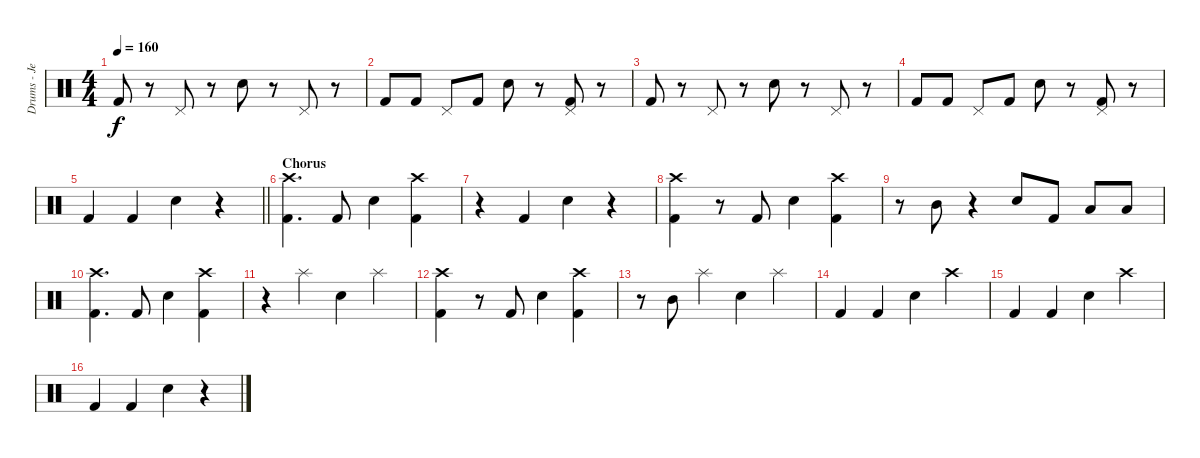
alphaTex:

\track ("Drums - Jen Ledger" "Drums - Je") {instrument percussion}
\staff {score}
\articulation defaults
\ts (4 4)
\tempo 160
\clef neutral
\ks c "Kick (hit) 2".8{dy f}
r.8 "Pedal Hi-Hat (hit)".8 r.8 "Snare (hit) 2".8 r.8 "Pedal Hi-Hat (hit)".8 r.8 |
"Kick (hit) 2".8 "Kick (hit) 2".8 "Pedal Hi-Hat (hit)".8 "Kick (hit) 2".8 "Snare (hit) 2".8 r.8 ("Kick (hit) 2" "Pedal Hi-Hat (hit)").8 r.8 |
"Kick (hit) 2".8 r.8 "Pedal Hi-Hat (hit)".8 r.8 "Snare (hit) 2".8 r.8 "Pedal Hi-Hat (hit)".8 r.8 |
"Kick (hit) 2".8 "Kick (hit) 2".8 "Pedal Hi-Hat (hit)".8 "Kick (hit) 2".8 "Snare (hit) 2".8 r.8 ("Kick (hit) 2" "Pedal Hi-Hat (hit)").8 r.8 |
\barLineRight lightlight "Kick (hit) 2".4 "Kick (hit) 2".4 "Snare (hit) 2".4
r.4 |
\section ("" "Chorus")
("Kick (hit) 2" "Crash high (hit)").4{d} "Kick (hit) 2".8 "Snare (hit) 2".4 ("Kick (hit) 2" "Crash high (hit)").4 |
r.4 "Kick (hit) 2".4 "Snare (hit) 2".4 r.4 |
("Kick (hit) 2" "Crash high (hit)").4 r.8 "Kick (hit) 2".8 "Snare (hit) 2".4 ("Kick (hit) 2" "Crash high (hit)").4 |
r.8 "Mid Tom (hit)".8 r.4 "Snare (hit) 2".8 "Kick (hit) 2".8 "Low Floor Tom (hit)".8 "Low Floor Tom (hit)".8 |
("Kick (hit) 2" "Crash high (hit)").4{d} "Kick (hit) 2".8 "Snare (hit) 2".4 ("Kick (hit) 2" "Crash high (hit)").4 |
r.4 "Splash (hit)".4 "Snare (hit) 2".4 "Splash (hit)".4 |
("Kick (hit) 2" "Crash high (hit)").4 r.8 "Kick (hit) 2".8 "Snare (hit) 2".4 ("Kick (hit) 2" "Crash high (hit)").4 |
r.8 "Mid Tom (hit)".8 "Splash (hit)".4 "Snare (hit) 2".4 "Splash (hit)".4 |
"Kick (hit) 2".4 "Kick (hit) 2".4 "Snare (hit) 2".4 "Crash high (hit)".4 |
"Kick (hit) 2".4 "Kick (hit) 2".4 "Snare (hit) 2".4 "Crash high (hit)".4 |
"Kick (hit) 2".4 "Kick (hit) 2".4 "Snare (hit) 2".4 r.4
